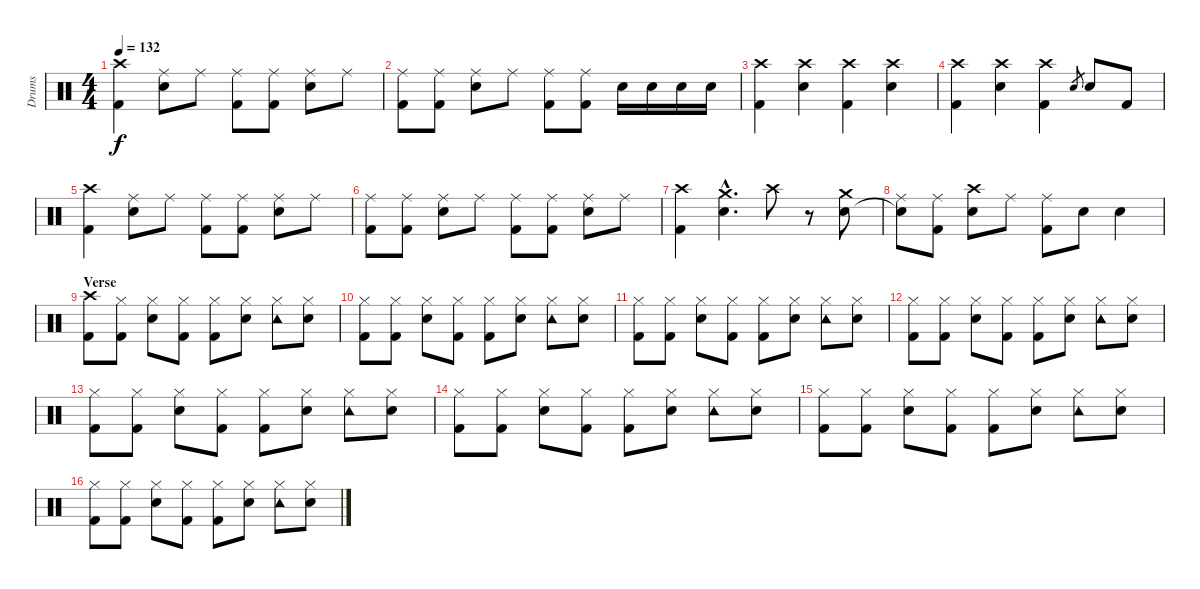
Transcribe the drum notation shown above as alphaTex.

\track ("Drums" "Drums") {instrument percussion}
\staff {score}
\articulation defaults
\ts (4 4)
\tempo 132
\clef neutral
\ks c
("Crash high (hit)" "Kick (hit) 2").4{dy f} ("Ride (middle)" "Electric Snare (hit)").8 "Ride (middle)".8 ("Ride (middle)" "Kick (hit) 2").8 ("Ride (middle)" "Kick (hit) 2").8 ("Ride (middle)" "Electric Snare (hit)").8 "Ride (middle)".8 |
("Ride (middle)" "Kick (hit) 2").8 ("Ride (middle)" "Kick (hit) 2").8 ("Ride (middle)" "Electric Snare (hit)").8 "Ride (middle)".8 ("Ride (middle)" "Kick (hit) 2").8 ("Ride (middle)" "Kick (hit) 2").8 "Electric Snare (hit)".16 "Electric Snare (hit)".16 "Electric Snare (hit)".16 "Electric Snare (hit)".16 |
("Crash high (hit)" "Kick (hit) 2").4 ("Crash high (hit)" "Electric Snare (hit)").4 ("Crash high (hit)" "Kick (hit) 2").4 ("Crash high (hit)" "Electric Snare (hit)").4 |
("Crash high (hit)" "Kick (hit) 2").4 ("Crash high (hit)" "Electric Snare (hit)").4 ("Crash high (hit)" "Kick (hit) 2").4 "Electric Snare (hit)".8{gr} "Electric Snare (hit)".8 "Kick (hit) 2".8 |
("Crash high (hit)" "Kick (hit) 2").4 ("Ride (middle)" "Electric Snare (hit)").8 "Ride (middle)".8 ("Ride (middle)" "Kick (hit) 2").8 ("Ride (middle)" "Kick (hit) 2").8 ("Ride (middle)" "Electric Snare (hit)").8 "Ride (middle)".8 |
("Ride (middle)" "Kick (hit) 2").8 ("Ride (middle)" "Kick (hit) 2").8 ("Ride (middle)" "Electric Snare (hit)").8 "Ride (middle)".8 ("Ride (middle)" "Kick (hit) 2").8 ("Ride (middle)" "Kick (hit) 2").8 ("Ride (middle)" "Electric Snare (hit)").8 "Ride (middle)".8 |
("Crash high (hit)" "Kick (hit) 2").4 ("Crash medium (hit)"{hac} "Electric Snare (hit)"{hac}).4{d} "Crash high (hit)".8 r.8 ("Crash medium (hit)" "Electric Snare (hit)").8 |
("Ride (middle)" "Snare (hit)"{t}).8 ("Ride (middle)" "Kick (hit) 2").8 ("Crash high (hit)" "Electric Snare (hit)").8 "Ride (middle)".8 ("Ride (middle)" "Kick (hit) 2").8 "Electric Snare (hit)".8 "Electric Snare (hit)".4 |
\section ("" "Verse")
("Crash high (hit)" "Kick (hit) 2").8 ("Hi-Hat (closed)" "Kick (hit) 2").8 ("Hi-Hat (closed)" "Electric Snare (hit)").8 ("Hi-Hat (closed)" "Kick (hit) 2").8 ("Hi-Hat (closed)" "Kick (hit) 2").8 ("Hi-Hat (closed)" "Electric Snare (hit)").8 ("Hi-Hat (closed)" "Tambourine (hit)").8 ("Hi-Hat (closed)" "Electric Snare (hit)").8 |
("Hi-Hat (closed)" "Kick (hit) 2").8 ("Hi-Hat (closed)" "Kick (hit) 2").8 ("Hi-Hat (closed)" "Electric Snare (hit)").8 ("Hi-Hat (closed)" "Kick (hit) 2").8 ("Hi-Hat (closed)" "Kick (hit) 2").8 ("Hi-Hat (closed)" "Electric Snare (hit)").8 ("Hi-Hat (closed)" "Tambourine (hit)").8 ("Hi-Hat (closed)" "Electric Snare (hit)").8 |
("Hi-Hat (closed)" "Kick (hit) 2").8 ("Hi-Hat (closed)" "Kick (hit) 2").8 ("Hi-Hat (closed)" "Electric Snare (hit)").8 ("Hi-Hat (closed)" "Kick (hit) 2").8 ("Hi-Hat (closed)" "Kick (hit) 2").8 ("Hi-Hat (closed)" "Electric Snare (hit)").8 ("Hi-Hat (closed)" "Tambourine (hit)").8 ("Hi-Hat (closed)" "Electric Snare (hit)").8 |
("Hi-Hat (closed)" "Kick (hit) 2").8 ("Hi-Hat (closed)" "Kick (hit) 2").8 ("Hi-Hat (closed)" "Electric Snare (hit)").8 ("Hi-Hat (closed)" "Kick (hit) 2").8 ("Hi-Hat (closed)" "Kick (hit) 2").8 ("Hi-Hat (closed)" "Electric Snare (hit)").8 ("Hi-Hat (closed)" "Tambourine (hit)").8 ("Hi-Hat (closed)" "Electric Snare (hit)").8 |
("Hi-Hat (closed)" "Kick (hit) 2").8 ("Hi-Hat (closed)" "Kick (hit) 2").8 ("Hi-Hat (closed)" "Electric Snare (hit)").8 ("Hi-Hat (closed)" "Kick (hit) 2").8 ("Hi-Hat (closed)" "Kick (hit) 2").8 ("Hi-Hat (closed)" "Electric Snare (hit)").8 ("Hi-Hat (closed)" "Tambourine (hit)").8 ("Hi-Hat (closed)" "Electric Snare (hit)").8 |
("Hi-Hat (closed)" "Kick (hit) 2").8 ("Hi-Hat (closed)" "Kick (hit) 2").8 ("Hi-Hat (closed)" "Electric Snare (hit)").8 ("Hi-Hat (closed)" "Kick (hit) 2").8 ("Hi-Hat (closed)" "Kick (hit) 2").8 ("Hi-Hat (closed)" "Electric Snare (hit)").8 ("Hi-Hat (closed)" "Tambourine (hit)").8 ("Hi-Hat (closed)" "Electric Snare (hit)").8 |
("Hi-Hat (closed)" "Kick (hit) 2").8 ("Hi-Hat (closed)" "Kick (hit) 2").8 ("Hi-Hat (closed)" "Electric Snare (hit)").8 ("Hi-Hat (closed)" "Kick (hit) 2").8 ("Hi-Hat (closed)" "Kick (hit) 2").8 ("Hi-Hat (closed)" "Electric Snare (hit)").8 ("Hi-Hat (closed)" "Tambourine (hit)").8 ("Hi-Hat (closed)" "Electric Snare (hit)").8 |
("Hi-Hat (closed)" "Kick (hit) 2").8 ("Hi-Hat (closed)" "Kick (hit) 2").8 ("Hi-Hat (closed)" "Electric Snare (hit)").8 ("Hi-Hat (closed)" "Kick (hit) 2").8 ("Hi-Hat (closed)" "Kick (hit) 2").8 ("Hi-Hat (closed)" "Electric Snare (hit)").8 ("Hi-Hat (closed)" "Tambourine (hit)").8 ("Hi-Hat (closed)" "Electric Snare (hit)").8
